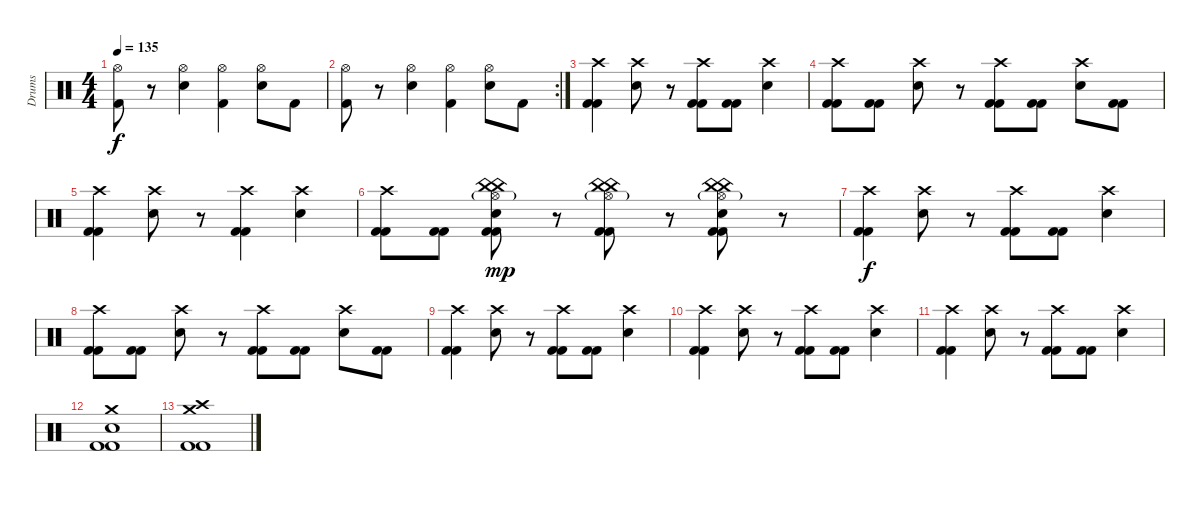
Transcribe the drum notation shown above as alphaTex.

\track ("Drums" "Drums") {instrument percussion}
\staff {score}
\articulation defaults
\ts (4 4)
\tempo 135
\clef neutral
\ks c
("Hi-Hat (open)" "Kick (hit) 2").8{dy f} r.8 ("Hi-Hat (open)" "Electric Snare (hit)").4 ("Hi-Hat (open)" "Kick (hit) 2").4 ("Hi-Hat (open)" "Electric Snare (hit)").8 "Kick (hit) 2".8 |
\rc 2
("Hi-Hat (open)" "Kick (hit) 2").8 r.8 ("Hi-Hat (open)" "Electric Snare (hit)").4 ("Hi-Hat (open)" "Kick (hit) 2").4 ("Hi-Hat (open)" "Electric Snare (hit)").8 "Kick (hit) 2".8 |
("Crash high (hit)" "Kick (hit) 2" "Kick (hit) 2").4 ("Crash high (hit)" "Electric Snare (hit)").8 r.8 ("Crash high (hit)" "Kick (hit) 2" "Kick (hit) 2").8 ("Kick (hit) 2" "Kick (hit) 2").8 ("Crash high (hit)" "Electric Snare (hit)").4 |
("Crash high (hit)" "Kick (hit) 2" "Kick (hit) 2").8 ("Kick (hit) 2" "Kick (hit) 2").8 ("Crash high (hit)" "Electric Snare (hit)").8 r.8 ("Crash high (hit)" "Kick (hit) 2" "Kick (hit) 2").8 ("Kick (hit) 2" "Kick (hit) 2").8 ("Crash high (hit)" "Electric Snare (hit)").8 ("Kick (hit) 2" "Kick (hit) 2").8 |
("Crash high (hit)" "Kick (hit) 2" "Kick (hit) 2").4 ("Crash high (hit)" "Electric Snare (hit)").8 r.8 ("Crash high (hit)" "Kick (hit) 2" "Kick (hit) 2").4 ("Crash high (hit)" "Electric Snare (hit)").4 |
("Crash high (hit)" "Kick (hit) 2" "Kick (hit) 2").8 ("Kick (hit) 2" "Kick (hit) 2").8 ("China (hit)" "China (hit)" "Hi-Hat (open)"{g} "Electric Snare (hit)" "Kick (hit) 2" "Kick (hit) 2").8{dy mp} r.8 ("China (hit)" "China (hit)" "Hi-Hat (open)"{g} "Kick (hit) 2" "Kick (hit) 2").8 r.8 ("China (hit)" "China (hit)" "Hi-Hat (open)"{g} "Electric Snare (hit)" "Kick (hit) 2" "Kick (hit) 2").8 r.8 |
("Crash high (hit)" "Kick (hit) 2" "Kick (hit) 2").4{dy f} ("Crash high (hit)" "Electric Snare (hit)").8 r.8 ("Crash high (hit)" "Kick (hit) 2" "Kick (hit) 2").8 ("Kick (hit) 2" "Kick (hit) 2").8 ("Crash high (hit)" "Electric Snare (hit)").4 |
("Crash high (hit)" "Kick (hit) 2" "Kick (hit) 2").8 ("Kick (hit) 2" "Kick (hit) 2").8 ("Crash high (hit)" "Electric Snare (hit)").8 r.8 ("Crash high (hit)" "Kick (hit) 2" "Kick (hit) 2").8 ("Kick (hit) 2" "Kick (hit) 2").8 ("Crash high (hit)" "Electric Snare (hit)").8 ("Kick (hit) 2" "Kick (hit) 2").8 |
("Crash high (hit)" "Kick (hit) 2" "Kick (hit) 2").4 ("Crash high (hit)" "Electric Snare (hit)").8 r.8 ("Crash high (hit)" "Kick (hit) 2" "Kick (hit) 2").8 ("Kick (hit) 2" "Kick (hit) 2").8 ("Crash high (hit)" "Electric Snare (hit)").4 |
("Crash high (hit)" "Kick (hit) 2" "Kick (hit) 2").4 ("Crash high (hit)" "Electric Snare (hit)").8 r.8 ("Crash high (hit)" "Kick (hit) 2" "Kick (hit) 2").8 ("Kick (hit) 2" "Kick (hit) 2").8 ("Crash high (hit)" "Electric Snare (hit)").4 |
("Crash high (hit)" "Kick (hit) 2" "Kick (hit) 2").4 ("Crash high (hit)" "Electric Snare (hit)").8 r.8 ("Crash high (hit)" "Kick (hit) 2" "Kick (hit) 2").8 ("Kick (hit) 2" "Kick (hit) 2").8 ("Crash high (hit)" "Electric Snare (hit)").4 |
("Crash medium (hit)" "Electric Snare (hit)" "Kick (hit) 2" "Kick (hit) 2").1 |
("Crash medium (hit)" "Crash high (hit)" "Kick (hit) 2" "Kick (hit) 2").1
